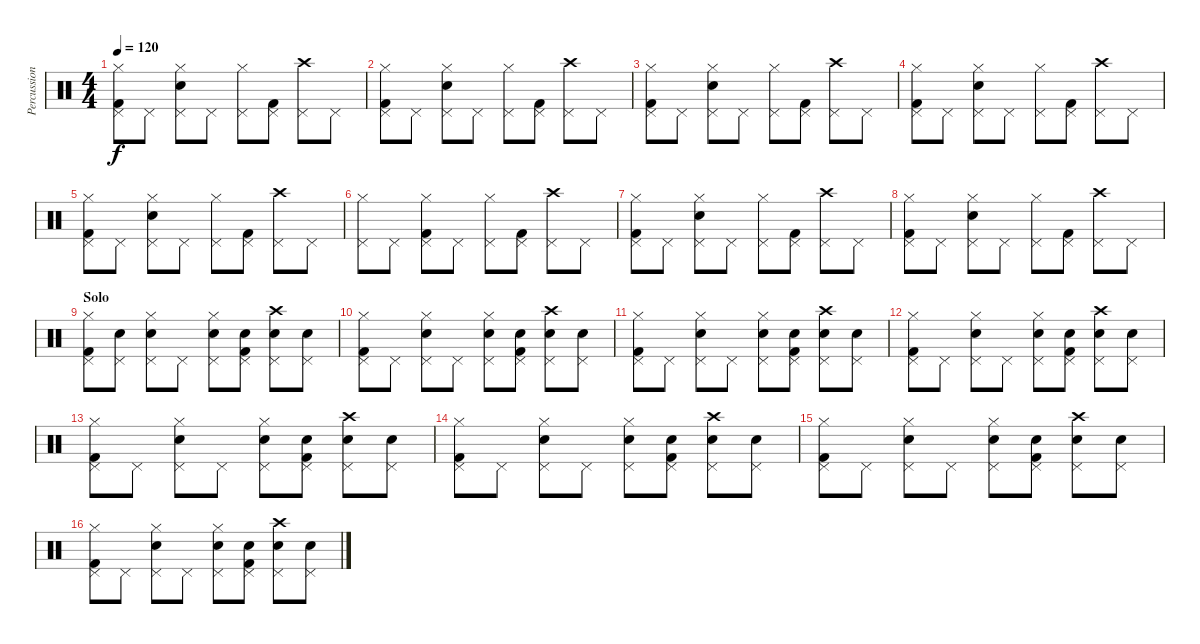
\track ("Percussion" "Percussion") {instrument percussion}
\staff {score}
\articulation defaults
\ts (4 4)
\tempo 120
\clef neutral
\ks c
("Hi-Hat (closed)" "Pedal Hi-Hat (hit)" "Kick (hit) 2").8{dy f} "Pedal Hi-Hat (hit)".8 ("Hi-Hat (closed)" "Pedal Hi-Hat (hit)" "Snare (hit) 2").8 "Pedal Hi-Hat (hit)".8 ("Hi-Hat (closed)" "Pedal Hi-Hat (hit)").8 ("Pedal Hi-Hat (hit)" "Kick (hit) 2").8 ("Crash high (hit)" "Pedal Hi-Hat (hit)").8 "Pedal Hi-Hat (hit)".8 |
("Hi-Hat (closed)" "Pedal Hi-Hat (hit)" "Kick (hit) 2").8 "Pedal Hi-Hat (hit)".8 ("Hi-Hat (closed)" "Pedal Hi-Hat (hit)" "Snare (hit) 2").8 "Pedal Hi-Hat (hit)".8 ("Hi-Hat (closed)" "Pedal Hi-Hat (hit)").8 ("Pedal Hi-Hat (hit)" "Kick (hit) 2").8 ("Crash high (hit)" "Pedal Hi-Hat (hit)").8 "Pedal Hi-Hat (hit)".8 |
("Hi-Hat (closed)" "Pedal Hi-Hat (hit)" "Kick (hit) 2").8 "Pedal Hi-Hat (hit)".8 ("Hi-Hat (closed)" "Pedal Hi-Hat (hit)" "Snare (hit) 2").8 "Pedal Hi-Hat (hit)".8 ("Hi-Hat (closed)" "Pedal Hi-Hat (hit)").8 ("Pedal Hi-Hat (hit)" "Kick (hit) 2").8 ("Crash high (hit)" "Pedal Hi-Hat (hit)").8 "Pedal Hi-Hat (hit)".8 |
("Hi-Hat (closed)" "Pedal Hi-Hat (hit)" "Kick (hit) 2").8 "Pedal Hi-Hat (hit)".8 ("Hi-Hat (closed)" "Pedal Hi-Hat (hit)" "Snare (hit) 2").8 "Pedal Hi-Hat (hit)".8 ("Hi-Hat (closed)" "Pedal Hi-Hat (hit)").8 ("Pedal Hi-Hat (hit)" "Kick (hit) 2").8 ("Crash high (hit)" "Pedal Hi-Hat (hit)").8 "Pedal Hi-Hat (hit)".8 |
("Hi-Hat (closed)" "Pedal Hi-Hat (hit)" "Kick (hit) 2").8 "Pedal Hi-Hat (hit)".8 ("Hi-Hat (closed)" "Pedal Hi-Hat (hit)" "Snare (hit) 2").8 "Pedal Hi-Hat (hit)".8 ("Hi-Hat (closed)" "Pedal Hi-Hat (hit)").8 ("Pedal Hi-Hat (hit)" "Kick (hit) 2").8 ("Crash high (hit)" "Pedal Hi-Hat (hit)").8 "Pedal Hi-Hat (hit)".8 |
("Hi-Hat (closed)" "Pedal Hi-Hat (hit)").8 "Pedal Hi-Hat (hit)".8 ("Hi-Hat (closed)" "Pedal Hi-Hat (hit)" "Kick (hit) 2").8 "Pedal Hi-Hat (hit)".8 ("Hi-Hat (closed)" "Pedal Hi-Hat (hit)").8 ("Pedal Hi-Hat (hit)" "Kick (hit) 2").8 ("Crash high (hit)" "Pedal Hi-Hat (hit)").8 "Pedal Hi-Hat (hit)".8 |
("Hi-Hat (closed)" "Pedal Hi-Hat (hit)" "Kick (hit) 2").8 "Pedal Hi-Hat (hit)".8 ("Hi-Hat (closed)" "Pedal Hi-Hat (hit)" "Snare (hit) 2").8 "Pedal Hi-Hat (hit)".8 ("Hi-Hat (closed)" "Pedal Hi-Hat (hit)").8 ("Pedal Hi-Hat (hit)" "Kick (hit) 2").8 ("Crash high (hit)" "Pedal Hi-Hat (hit)").8 "Pedal Hi-Hat (hit)".8 |
("Hi-Hat (closed)" "Pedal Hi-Hat (hit)" "Kick (hit) 2").8 "Pedal Hi-Hat (hit)".8 ("Hi-Hat (closed)" "Pedal Hi-Hat (hit)" "Snare (hit) 2").8 "Pedal Hi-Hat (hit)".8 ("Hi-Hat (closed)" "Pedal Hi-Hat (hit)").8 ("Pedal Hi-Hat (hit)" "Kick (hit) 2").8 ("Crash high (hit)" "Pedal Hi-Hat (hit)").8 "Pedal Hi-Hat (hit)".8 |
\section ("" "Solo")
("Hi-Hat (closed)" "Pedal Hi-Hat (hit)" "Kick (hit) 2").8 ("Pedal Hi-Hat (hit)" "Snare (hit) 2").8 ("Hi-Hat (closed)" "Pedal Hi-Hat (hit)" "Snare (hit) 2").8 "Pedal Hi-Hat (hit)".8 ("Hi-Hat (closed)" "Pedal Hi-Hat (hit)" "Snare (hit) 2").8 ("Pedal Hi-Hat (hit)" "Kick (hit) 2" "Snare (hit) 2").8 ("Crash high (hit)" "Pedal Hi-Hat (hit)" "Snare (hit) 2").8 ("Pedal Hi-Hat (hit)" "Snare (hit) 2").8 |
("Hi-Hat (closed)" "Pedal Hi-Hat (hit)" "Kick (hit) 2").8 "Pedal Hi-Hat (hit)".8 ("Hi-Hat (closed)" "Pedal Hi-Hat (hit)" "Snare (hit) 2").8 "Pedal Hi-Hat (hit)".8 ("Hi-Hat (closed)" "Pedal Hi-Hat (hit)" "Snare (hit) 2").8 ("Pedal Hi-Hat (hit)" "Kick (hit) 2" "Snare (hit) 2").8 ("Crash high (hit)" "Pedal Hi-Hat (hit)" "Snare (hit) 2").8 ("Pedal Hi-Hat (hit)" "Snare (hit) 2").8 |
("Hi-Hat (closed)" "Pedal Hi-Hat (hit)" "Kick (hit) 2").8 "Pedal Hi-Hat (hit)".8 ("Hi-Hat (closed)" "Pedal Hi-Hat (hit)" "Snare (hit) 2").8 "Pedal Hi-Hat (hit)".8 ("Hi-Hat (closed)" "Pedal Hi-Hat (hit)" "Snare (hit) 2").8 ("Pedal Hi-Hat (hit)" "Kick (hit) 2" "Snare (hit) 2").8 ("Crash high (hit)" "Pedal Hi-Hat (hit)" "Snare (hit) 2").8 ("Pedal Hi-Hat (hit)" "Snare (hit) 2").8 |
("Hi-Hat (closed)" "Pedal Hi-Hat (hit)" "Kick (hit) 2").8 "Pedal Hi-Hat (hit)".8 ("Hi-Hat (closed)" "Pedal Hi-Hat (hit)" "Snare (hit) 2").8 "Pedal Hi-Hat (hit)".8 ("Hi-Hat (closed)" "Pedal Hi-Hat (hit)" "Snare (hit) 2").8 ("Pedal Hi-Hat (hit)" "Kick (hit) 2" "Snare (hit) 2").8 ("Crash high (hit)" "Pedal Hi-Hat (hit)" "Snare (hit) 2").8 ("Pedal Hi-Hat (hit)" "Snare (hit) 2").8 |
("Hi-Hat (closed)" "Pedal Hi-Hat (hit)" "Kick (hit) 2").8 "Pedal Hi-Hat (hit)".8 ("Hi-Hat (closed)" "Pedal Hi-Hat (hit)" "Snare (hit) 2").8 "Pedal Hi-Hat (hit)".8 ("Hi-Hat (closed)" "Pedal Hi-Hat (hit)" "Snare (hit) 2").8 ("Pedal Hi-Hat (hit)" "Kick (hit) 2" "Snare (hit) 2").8 ("Crash high (hit)" "Pedal Hi-Hat (hit)" "Snare (hit) 2").8 ("Pedal Hi-Hat (hit)" "Snare (hit) 2").8 |
("Hi-Hat (closed)" "Pedal Hi-Hat (hit)" "Kick (hit) 2").8 "Pedal Hi-Hat (hit)".8 ("Hi-Hat (closed)" "Pedal Hi-Hat (hit)" "Snare (hit) 2").8 "Pedal Hi-Hat (hit)".8 ("Hi-Hat (closed)" "Pedal Hi-Hat (hit)" "Snare (hit) 2").8 ("Pedal Hi-Hat (hit)" "Kick (hit) 2" "Snare (hit) 2").8 ("Crash high (hit)" "Pedal Hi-Hat (hit)" "Snare (hit) 2").8 ("Pedal Hi-Hat (hit)" "Snare (hit) 2").8 |
("Hi-Hat (closed)" "Pedal Hi-Hat (hit)" "Kick (hit) 2").8 "Pedal Hi-Hat (hit)".8 ("Hi-Hat (closed)" "Pedal Hi-Hat (hit)" "Snare (hit) 2").8 "Pedal Hi-Hat (hit)".8 ("Hi-Hat (closed)" "Pedal Hi-Hat (hit)" "Snare (hit) 2").8 ("Pedal Hi-Hat (hit)" "Kick (hit) 2" "Snare (hit) 2").8 ("Crash high (hit)" "Pedal Hi-Hat (hit)" "Snare (hit) 2").8 ("Pedal Hi-Hat (hit)" "Snare (hit) 2").8 |
("Hi-Hat (closed)" "Pedal Hi-Hat (hit)" "Kick (hit) 2").8 "Pedal Hi-Hat (hit)".8 ("Hi-Hat (closed)" "Pedal Hi-Hat (hit)" "Snare (hit) 2").8 "Pedal Hi-Hat (hit)".8 ("Hi-Hat (closed)" "Pedal Hi-Hat (hit)" "Snare (hit) 2").8 ("Pedal Hi-Hat (hit)" "Kick (hit) 2" "Snare (hit) 2").8 ("Crash high (hit)" "Pedal Hi-Hat (hit)" "Snare (hit) 2").8 ("Pedal Hi-Hat (hit)" "Snare (hit) 2").8
